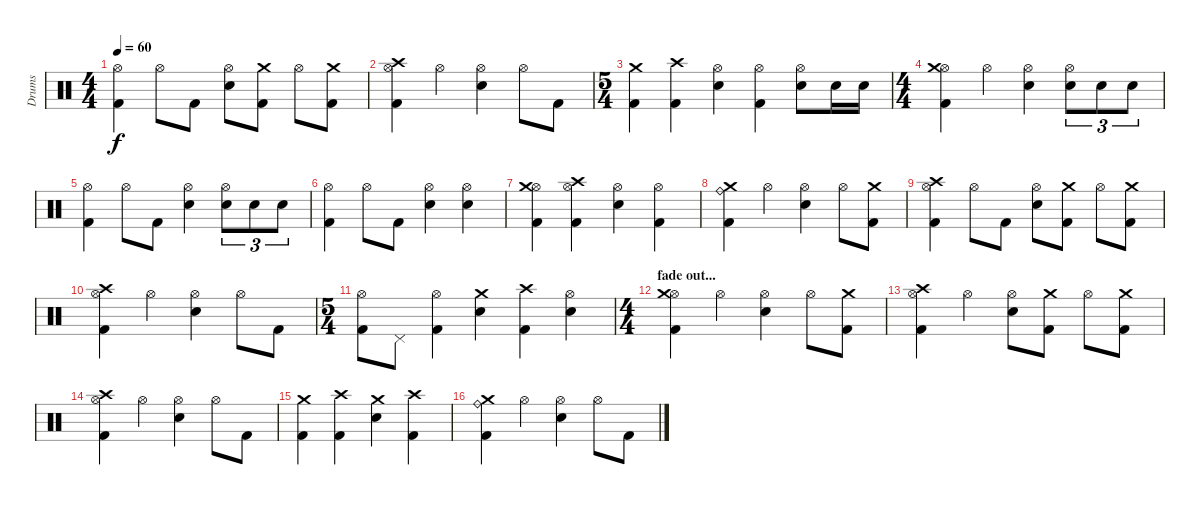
\track ("Drums" "Drums") {instrument percussion}
\staff {score}
\articulation defaults
\ts (4 4)
\tempo 60
\clef neutral
\ks c
("Kick (hit) 2" "Hi-Hat (open)").4{dy f} "Hi-Hat (open)".8 "Kick (hit) 2".8 ("Electric Snare (hit)" "Hi-Hat (open)").8 ("Kick (hit) 2" "Crash medium (hit)").8 "Hi-Hat (open)".8 ("Kick (hit) 2" "Crash medium (hit)").8 |
("Kick (hit) 2" "Hi-Hat (open)" "Crash high (hit)").4 "Hi-Hat (open)".4 ("Electric Snare (hit)" "Hi-Hat (open)").4 "Hi-Hat (open)".8 "Kick (hit) 2".8 |
\ts (5 4)
("Kick (hit) 2" "Crash medium (hit)").4 ("Kick (hit) 2" "Crash high (hit)").4 ("Electric Snare (hit)" "Hi-Hat (open)").4 ("Kick (hit) 2" "Hi-Hat (open)").4 ("Electric Snare (hit)" "Hi-Hat (open)").8 "Electric Snare (hit)".16 "Electric Snare (hit)".16 |
\ts (4 4)
("Kick (hit) 2" "Hi-Hat (open)" "Crash medium (hit)").4 "Hi-Hat (open)".4 ("Electric Snare (hit)" "Hi-Hat (open)").4 ("Electric Snare (hit)" "Hi-Hat (open)").8{tu (3 2)} "Electric Snare (hit)".8{tu (3 2)} "Electric Snare (hit)".8{tu (3 2)} |
("Kick (hit) 2" "Hi-Hat (open)").4 "Hi-Hat (open)".8 "Kick (hit) 2".8 ("Electric Snare (hit)" "Hi-Hat (open)").4 ("Electric Snare (hit)" "Hi-Hat (open)").8{tu (3 2)} "Electric Snare (hit)".8{tu (3 2)} "Electric Snare (hit)".8{tu (3 2)} |
("Kick (hit) 2" "Hi-Hat (open)").4 "Hi-Hat (open)".8 "Kick (hit) 2".8 ("Electric Snare (hit)" "Hi-Hat (open)").4 ("Electric Snare (hit)" "Hi-Hat (open)").4 |
("Kick (hit) 2" "Hi-Hat (open)" "Crash medium (hit)").4 ("Kick (hit) 2" "Hi-Hat (open)" "Crash high (hit)").4 ("Electric Snare (hit)" "Hi-Hat (open)").4 ("Kick (hit) 2" "Hi-Hat (open)").4 |
("Kick (hit) 2" "Ride (bell)" "Crash medium (hit)").4 "Hi-Hat (open)".4 ("Electric Snare (hit)" "Hi-Hat (open)").4 "Hi-Hat (open)".8 ("Kick (hit) 2" "Crash medium (hit)").8 |
("Kick (hit) 2" "Hi-Hat (open)" "Crash high (hit)").4 "Hi-Hat (open)".8 "Kick (hit) 2".8 ("Electric Snare (hit)" "Hi-Hat (open)").8 ("Kick (hit) 2" "Crash medium (hit)").8 "Hi-Hat (open)".8 ("Kick (hit) 2" "Crash medium (hit)").8 |
("Kick (hit) 2" "Hi-Hat (open)" "Crash high (hit)").4 "Hi-Hat (open)".4 ("Electric Snare (hit)" "Hi-Hat (open)").4 "Hi-Hat (open)".8 "Kick (hit) 2".8 |
\ts (5 4)
("Kick (hit) 2" "Hi-Hat (open)").8 "Pedal Hi-Hat (hit)".8 ("Kick (hit) 2" "Hi-Hat (open)").4 ("Electric Snare (hit)" "Crash medium (hit)").4 ("Kick (hit) 2" "Crash high (hit)").4 ("Electric Snare (hit)" "Hi-Hat (open)").4 |
\ts (4 4)
\section ("" "fade out...")
("Kick (hit) 2" "Hi-Hat (open)" "Crash medium (hit)").4 "Hi-Hat (open)".4 ("Electric Snare (hit)" "Hi-Hat (open)").4 "Hi-Hat (open)".8 ("Kick (hit) 2" "Crash medium (hit)").8 |
("Kick (hit) 2" "Hi-Hat (open)" "Crash high (hit)").4 "Hi-Hat (open)".4 ("Electric Snare (hit)" "Hi-Hat (open)").8 ("Kick (hit) 2" "Crash medium (hit)").8 "Hi-Hat (open)".8 ("Kick (hit) 2" "Crash medium (hit)").8 |
("Kick (hit) 2" "Hi-Hat (open)" "Crash high (hit)").4 "Hi-Hat (open)".4 ("Electric Snare (hit)" "Hi-Hat (open)").4 "Hi-Hat (open)".8 "Kick (hit) 2".8 |
("Kick (hit) 2" "Crash medium (hit)").4 ("Kick (hit) 2" "Crash high (hit)").4 ("Electric Snare (hit)" "Crash medium (hit)").4 ("Kick (hit) 2" "Crash high (hit)").4 |
("Kick (hit) 2" "Ride (bell)" "Crash medium (hit)").4 "Hi-Hat (open)".4 ("Electric Snare (hit)" "Hi-Hat (open)").4 "Hi-Hat (open)".8 "Kick (hit) 2".8
